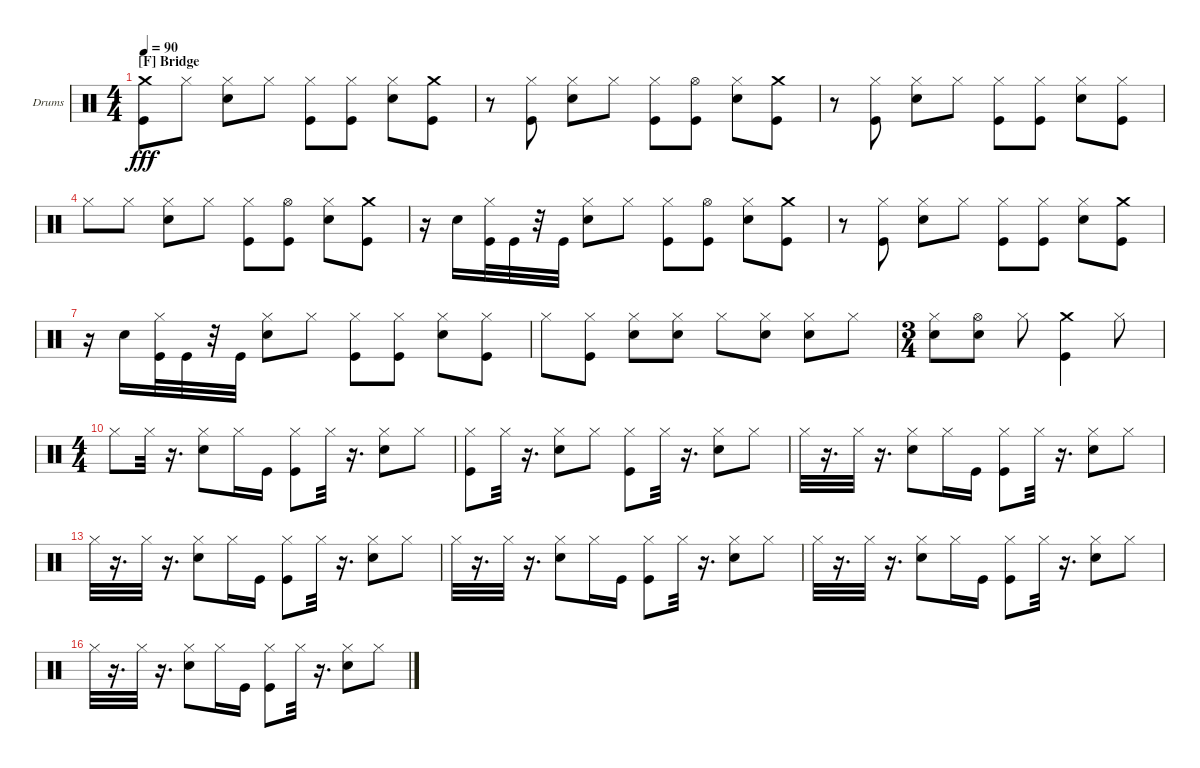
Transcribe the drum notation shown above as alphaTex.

\bracketExtendMode nobrackets
\firstSystemTrackNameOrientation horizontal
\otherSystemsTrackNameOrientation horizontal
\defaultBarNumberDisplay FirstOfSystem
\track ("Drums" "Drums") {instrument percussion}
\staff {score}
\articulation defaults
\ts (4 4)
\section ("F" "Bridge")
\tempo 90
\clef neutral
\ks c
("Kick (hit)" "Crash medium (hit)").8{dy fff} "Hi-Hat (closed)".8 ("Hi-Hat (closed)" "Snare (hit) 2").8 "Hi-Hat (closed)".8 ("Kick (hit)" "Hi-Hat (closed)").8 ("Kick (hit)" "Hi-Hat (closed)").8 ("Hi-Hat (closed)" "Snare (hit) 2").8 ("Kick (hit)" "Crash medium (hit)").8 |
r.8 ("Hi-Hat (closed)" "Kick (hit)").8 ("Snare (hit) 2" "Hi-Hat (closed)").8 "Hi-Hat (closed)".8 ("Kick (hit)" "Hi-Hat (closed)").8 ("Kick (hit)" "Hi-Hat (open)").8 ("Hi-Hat (closed)" "Snare (hit) 2").8 ("Kick (hit)" "Crash medium (hit)").8 |
r.8 ("Hi-Hat (closed)" "Kick (hit)").8 ("Snare (hit) 2" "Hi-Hat (closed)").8 "Hi-Hat (closed)".8 ("Kick (hit)" "Hi-Hat (closed)").8 ("Kick (hit)" "Hi-Hat (closed)").8 ("Hi-Hat (closed)" "Snare (hit) 2").8 ("Hi-Hat (closed)" "Kick (hit)").8 |
"Hi-Hat (closed)".8 "Hi-Hat (closed)".8 ("Snare (hit) 2" "Hi-Hat (closed)").8 "Hi-Hat (closed)".8 ("Kick (hit)" "Hi-Hat (closed)").8 ("Kick (hit)" "Hi-Hat (open)").8 ("Hi-Hat (closed)" "Snare (hit) 2").8 ("Kick (hit)" "Crash medium (hit)").8 |
r.16 "Snare (hit) 2".16 ("Kick (hit)" "Hi-Hat (closed)").32 "Kick (hit)".32 r.32 "Kick (hit)".32 ("Snare (hit) 2" "Hi-Hat (closed)").8 "Hi-Hat (closed)".8 ("Kick (hit)" "Hi-Hat (closed)").8 ("Kick (hit)" "Hi-Hat (open)").8 ("Hi-Hat (closed)" "Snare (hit) 2").8 ("Kick (hit)" "Crash medium (hit)").8 |
r.8 ("Kick (hit)" "Hi-Hat (closed)").8 ("Snare (hit) 2" "Hi-Hat (closed)").8 "Hi-Hat (closed)".8 ("Kick (hit)" "Hi-Hat (closed)").8 ("Kick (hit)" "Hi-Hat (closed)").8 ("Hi-Hat (closed)" "Snare (hit) 2").8 ("Crash medium (hit)" "Kick (hit)").8 |
r.16 "Snare (hit) 2".16 ("Hi-Hat (closed)" "Kick (hit)").32 "Kick (hit)".32 r.32 "Kick (hit)".32 ("Hi-Hat (closed)" "Snare (hit) 2").8 "Hi-Hat (closed)".8 ("Kick (hit)" "Hi-Hat (closed)").8 ("Hi-Hat (closed)" "Kick (hit)").8 ("Snare (hit) 2" "Hi-Hat (closed)").8 ("Hi-Hat (closed)" "Kick (hit)").8 |
"Hi-Hat (closed)".8 ("Kick (hit)" "Hi-Hat (closed)").8 ("Snare (hit) 2" "Hi-Hat (closed)").8 ("Snare (hit) 2" "Hi-Hat (closed)").8 "Hi-Hat (closed)".8 ("Snare (hit) 2" "Hi-Hat (closed)").8 ("Hi-Hat (closed)" "Snare (hit) 2").8 "Hi-Hat (closed)".8 |
\ts (3 4)
("Snare (hit) 2" "Hi-Hat (closed)").8 ("Hi-Hat (open)" "Snare (hit) 2").8 "Hi-Hat (closed)".8 ("Kick (hit)" "Crash medium (hit)").4 "Hi-Hat (closed)".8 |
\ts (4 4)
"Hi-Hat (closed)".8 "Hi-Hat (closed)".32 r.16{d} ("Hi-Hat (closed)" "Snare (hit) 2").8 "Hi-Hat (closed)".16 "Kick (hit)".16 ("Kick (hit)" "Hi-Hat (closed)").8 "Hi-Hat (closed)".32 r.16{d} ("Hi-Hat (closed)" "Snare (hit) 2").8 "Hi-Hat (closed)".8 |
("Hi-Hat (closed)" "Kick (hit)").8 "Hi-Hat (closed)".32 r.16{d} ("Hi-Hat (closed)" "Snare (hit) 2").8 "Hi-Hat (closed)".8 ("Kick (hit)" "Hi-Hat (closed)").8 "Hi-Hat (closed)".32 r.16{d} ("Hi-Hat (closed)" "Snare (hit) 2").8 "Hi-Hat (closed)".8 |
"Hi-Hat (closed)".32 r.16{d} "Hi-Hat (closed)".32 r.16{d} ("Hi-Hat (closed)" "Snare (hit) 2").8 "Hi-Hat (closed)".16 "Kick (hit)".16 ("Kick (hit)" "Hi-Hat (closed)").8 "Hi-Hat (closed)".32 r.16{d} ("Hi-Hat (closed)" "Snare (hit) 2").8 "Hi-Hat (closed)".8 |
"Hi-Hat (closed)".32 r.16{d} "Hi-Hat (closed)".32 r.16{d} ("Hi-Hat (closed)" "Snare (hit) 2").8 "Hi-Hat (closed)".16 "Kick (hit)".16 ("Kick (hit)" "Hi-Hat (closed)").8 "Hi-Hat (closed)".32 r.16{d} ("Hi-Hat (closed)" "Snare (hit) 2").8 "Hi-Hat (closed)".8 |
"Hi-Hat (closed)".32 r.16{d} "Hi-Hat (closed)".32 r.16{d} ("Hi-Hat (closed)" "Snare (hit) 2").8 "Hi-Hat (closed)".16 "Kick (hit)".16 ("Kick (hit)" "Hi-Hat (closed)").8 "Hi-Hat (closed)".32 r.16{d} ("Hi-Hat (closed)" "Snare (hit) 2").8 "Hi-Hat (closed)".8 |
"Hi-Hat (closed)".32 r.16{d} "Hi-Hat (closed)".32 r.16{d} ("Hi-Hat (closed)" "Snare (hit) 2").8 "Hi-Hat (closed)".16 "Kick (hit)".16 ("Kick (hit)" "Hi-Hat (closed)").8 "Hi-Hat (closed)".32 r.16{d} ("Hi-Hat (closed)" "Snare (hit) 2").8 "Hi-Hat (closed)".8 |
"Hi-Hat (closed)".32 r.16{d} "Hi-Hat (closed)".32 r.16{d} ("Hi-Hat (closed)" "Snare (hit) 2").8 "Hi-Hat (closed)".16 "Kick (hit)".16 ("Kick (hit)" "Hi-Hat (closed)").8 "Hi-Hat (closed)".32 r.16{d} ("Hi-Hat (closed)" "Snare (hit) 2").8 "Hi-Hat (closed)".8
